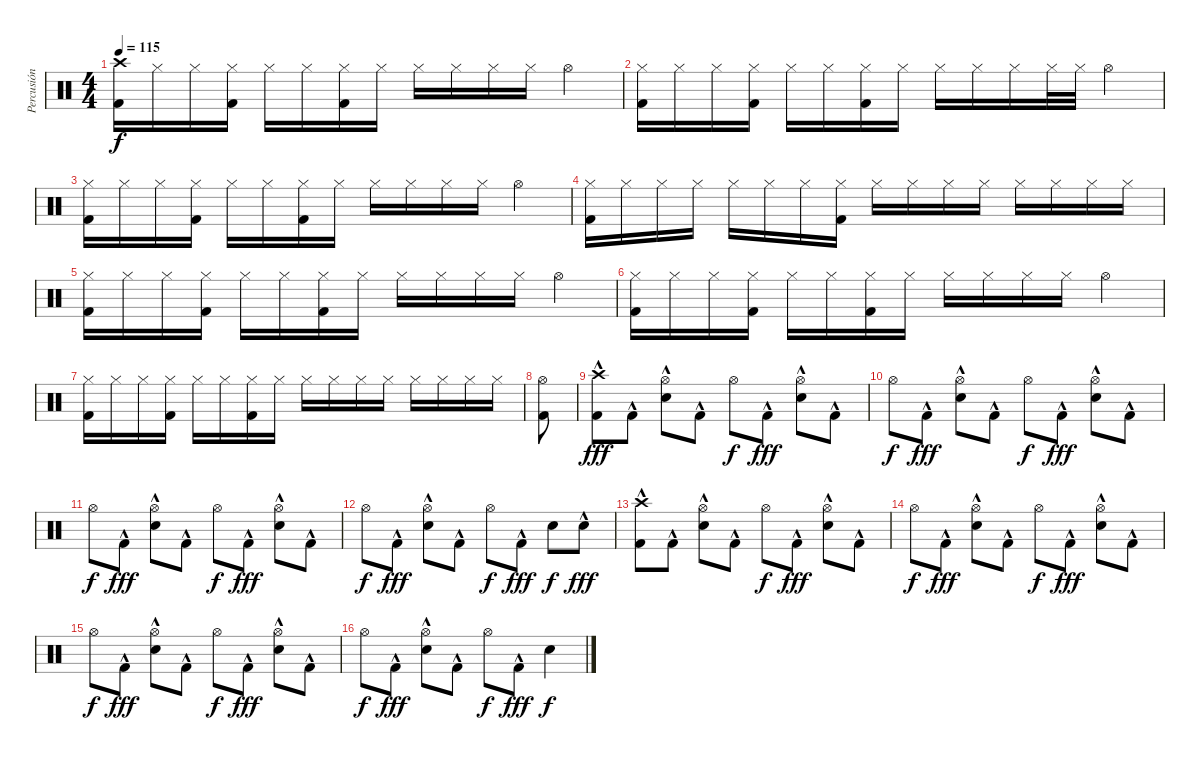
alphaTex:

\track ("Percusión" "Percusión") {instrument percussion}
\staff {score}
\articulation defaults
\ts (4 4)
\tempo 115
\clef neutral
\ks c
("Crash high (hit)" "Kick (hit) 2").16{dy f} "Hi-Hat (closed)".16 "Hi-Hat (closed)".16 ("Kick (hit) 2" "Hi-Hat (closed)").16 "Hi-Hat (closed)".16 "Hi-Hat (closed)".16 ("Kick (hit) 2" "Hi-Hat (closed)").16 "Hi-Hat (closed)".16 "Hi-Hat (closed)".16 "Hi-Hat (closed)".16 "Hi-Hat (closed)".16 "Hi-Hat (closed)".16 "Hi-Hat (open)".4 |
("Kick (hit) 2" "Hi-Hat (closed)").16 "Hi-Hat (closed)".16 "Hi-Hat (closed)".16 ("Kick (hit) 2" "Hi-Hat (closed)").16 "Hi-Hat (closed)".16 "Hi-Hat (closed)".16 ("Kick (hit) 2" "Hi-Hat (closed)").16 "Hi-Hat (closed)".16 "Hi-Hat (closed)".16 "Hi-Hat (closed)".16 "Hi-Hat (closed)".16 "Hi-Hat (closed)".32 "Hi-Hat (closed)".32 "Hi-Hat (open)".4 |
("Kick (hit) 2" "Hi-Hat (closed)").16 "Hi-Hat (closed)".16 "Hi-Hat (closed)".16 ("Kick (hit) 2" "Hi-Hat (closed)").16 "Hi-Hat (closed)".16 "Hi-Hat (closed)".16 ("Kick (hit) 2" "Hi-Hat (closed)").16 "Hi-Hat (closed)".16 "Hi-Hat (closed)".16 "Hi-Hat (closed)".16 "Hi-Hat (closed)".16 "Hi-Hat (closed)".16 "Hi-Hat (open)".4 |
("Kick (hit) 2" "Hi-Hat (closed)").16 "Hi-Hat (closed)".16 "Hi-Hat (closed)".16 "Hi-Hat (closed)".16 "Hi-Hat (closed)".16 "Hi-Hat (closed)".16 "Hi-Hat (closed)".16 ("Kick (hit) 2" "Hi-Hat (closed)").16 "Hi-Hat (closed)".16 "Hi-Hat (closed)".16 "Hi-Hat (closed)".16 "Hi-Hat (closed)".16 "Hi-Hat (closed)".16 "Hi-Hat (closed)".16 "Hi-Hat (closed)".16 "Hi-Hat (closed)".16 |
("Kick (hit) 2" "Hi-Hat (closed)").16 "Hi-Hat (closed)".16 "Hi-Hat (closed)".16 ("Kick (hit) 2" "Hi-Hat (closed)").16 "Hi-Hat (closed)".16 "Hi-Hat (closed)".16 ("Kick (hit) 2" "Hi-Hat (closed)").16 "Hi-Hat (closed)".16 "Hi-Hat (closed)".16 "Hi-Hat (closed)".16 "Hi-Hat (closed)".16 "Hi-Hat (closed)".16 "Hi-Hat (open)".4 |
("Kick (hit) 2" "Hi-Hat (closed)").16 "Hi-Hat (closed)".16 "Hi-Hat (closed)".16 ("Kick (hit) 2" "Hi-Hat (closed)").16 "Hi-Hat (closed)".16 "Hi-Hat (closed)".16 ("Kick (hit) 2" "Hi-Hat (closed)").16 "Hi-Hat (closed)".16 "Hi-Hat (closed)".16 "Hi-Hat (closed)".16 "Hi-Hat (closed)".16 "Hi-Hat (closed)".16 "Hi-Hat (open)".4 |
("Kick (hit) 2" "Hi-Hat (closed)").16 "Hi-Hat (closed)".16 "Hi-Hat (closed)".16 ("Kick (hit) 2" "Hi-Hat (closed)").16 "Hi-Hat (closed)".16 "Hi-Hat (closed)".16 ("Kick (hit) 2" "Hi-Hat (closed)").16 "Hi-Hat (closed)".16 "Hi-Hat (closed)".16 "Hi-Hat (closed)".16 "Hi-Hat (closed)".16 "Hi-Hat (closed)".16 "Hi-Hat (closed)".16 "Hi-Hat (closed)".16 "Hi-Hat (closed)".16 "Hi-Hat (closed)".16 |
("Hi-Hat (open)" "Kick (hit) 2").8 |
("Crash high (hit)" "Kick (hit) 2"{hac}).8{dy fff} "Kick (hit) 2"{hac}.8 ("Hi-Hat (open)"{hac} "Snare (hit) 2").8 "Kick (hit) 2"{hac}.8 "Hi-Hat (open)".8{dy f} "Kick (hit) 2"{hac}.8{dy fff} ("Hi-Hat (open)"{hac} "Snare (hit) 2").8 "Kick (hit) 2"{hac}.8 |
"Hi-Hat (open)".8{dy f} "Kick (hit) 2"{hac}.8{dy fff} ("Hi-Hat (open)"{hac} "Snare (hit) 2").8 "Kick (hit) 2"{hac}.8 "Hi-Hat (open)".8{dy f} "Kick (hit) 2"{hac}.8{dy fff} ("Hi-Hat (open)"{hac} "Snare (hit) 2").8 "Kick (hit) 2"{hac}.8 |
"Hi-Hat (open)".8{dy f} "Kick (hit) 2"{hac}.8{dy fff} ("Hi-Hat (open)"{hac} "Snare (hit) 2").8 "Kick (hit) 2"{hac}.8 "Hi-Hat (open)".8{dy f} "Kick (hit) 2"{hac}.8{dy fff} ("Hi-Hat (open)"{hac} "Snare (hit) 2").8 "Kick (hit) 2"{hac}.8 |
"Hi-Hat (open)".8{dy f} "Kick (hit) 2"{hac}.8{dy fff} ("Hi-Hat (open)"{hac} "Snare (hit) 2").8 "Kick (hit) 2"{hac}.8 "Hi-Hat (open)".8{dy f} "Kick (hit) 2"{hac}.8{dy fff} "Snare (hit) 2".8{dy f} "Snare (hit) 2"{hac}.8{dy fff} |
("Crash high (hit)" "Kick (hit) 2"{hac}).8 "Kick (hit) 2"{hac}.8 ("Hi-Hat (open)"{hac} "Snare (hit) 2").8 "Kick (hit) 2"{hac}.8 "Hi-Hat (open)".8{dy f} "Kick (hit) 2"{hac}.8{dy fff} ("Hi-Hat (open)"{hac} "Snare (hit) 2").8 "Kick (hit) 2"{hac}.8 |
"Hi-Hat (open)".8{dy f} "Kick (hit) 2"{hac}.8{dy fff} ("Hi-Hat (open)"{hac} "Snare (hit) 2").8 "Kick (hit) 2"{hac}.8 "Hi-Hat (open)".8{dy f} "Kick (hit) 2"{hac}.8{dy fff} ("Hi-Hat (open)"{hac} "Snare (hit) 2").8 "Kick (hit) 2"{hac}.8 |
"Hi-Hat (open)".8{dy f} "Kick (hit) 2"{hac}.8{dy fff} ("Hi-Hat (open)"{hac} "Snare (hit) 2").8 "Kick (hit) 2"{hac}.8 "Hi-Hat (open)".8{dy f} "Kick (hit) 2"{hac}.8{dy fff} ("Hi-Hat (open)"{hac} "Snare (hit) 2").8 "Kick (hit) 2"{hac}.8 |
"Hi-Hat (open)".8{dy f} "Kick (hit) 2"{hac}.8{dy fff} ("Hi-Hat (open)"{hac} "Snare (hit) 2").8 "Kick (hit) 2"{hac}.8 "Hi-Hat (open)".8{dy f} "Kick (hit) 2"{hac}.8{dy fff} "Snare (hit) 2".4{dy f}
